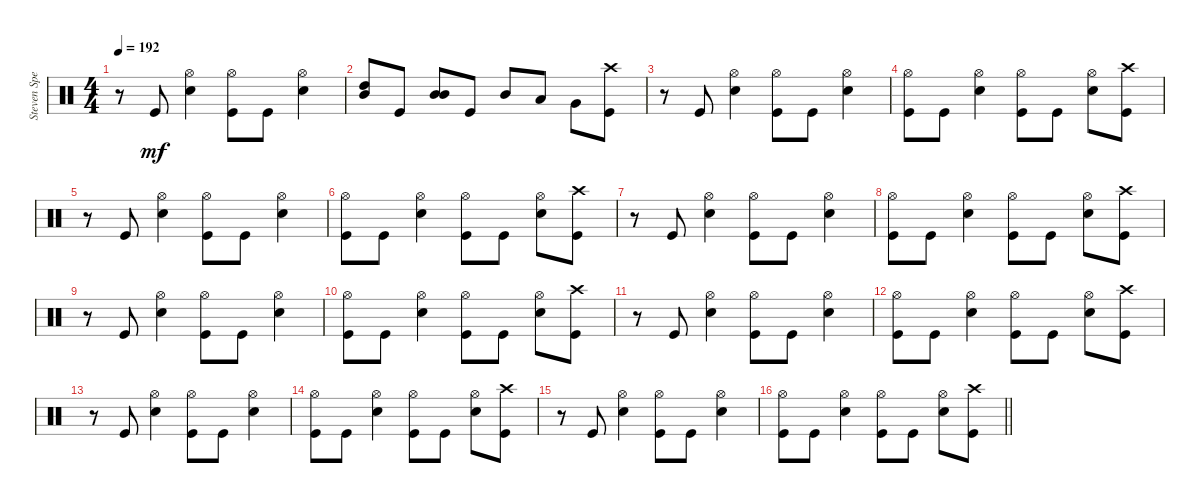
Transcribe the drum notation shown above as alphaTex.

\track ("Steven Spence" "Steven Spe") {instrument percussion}
\staff {score}
\articulation defaults
\ts (4 4)
\tempo 192
\clef neutral
\ks c
r.8{dy mf} "Kick (hit)".8 ("Hi-Hat (open)" "Electric Snare (hit)").4 ("Hi-Hat (open)" "Kick (hit)").8 "Kick (hit)".8 ("Hi-Hat (open)" "Electric Snare (hit)").4 |
("Mid Tom (hit)" "High Tom (hit)").8 "Kick (hit)".8 ("Mid Tom (hit)" "Mid Tom (hit)").8 "Kick (hit)".8 "Mid Tom (hit)".8 "Low Tom (hit)".8 "Very Low Tom (hit)".8 ("Crash high (hit)" "Kick (hit)").8 |
r.8 "Kick (hit)".8 ("Hi-Hat (open)" "Electric Snare (hit)").4 ("Hi-Hat (open)" "Kick (hit)").8 "Kick (hit)".8 ("Hi-Hat (open)" "Electric Snare (hit)").4 |
("Hi-Hat (open)" "Kick (hit)").8 "Kick (hit)".8 ("Hi-Hat (open)" "Electric Snare (hit)").4 ("Hi-Hat (open)" "Kick (hit)").8 "Kick (hit)".8 ("Hi-Hat (open)" "Electric Snare (hit)").8 ("Crash high (hit)" "Kick (hit)").8 |
r.8 "Kick (hit)".8 ("Hi-Hat (open)" "Electric Snare (hit)").4 ("Hi-Hat (open)" "Kick (hit)").8 "Kick (hit)".8 ("Hi-Hat (open)" "Electric Snare (hit)").4 |
("Hi-Hat (open)" "Kick (hit)").8 "Kick (hit)".8 ("Hi-Hat (open)" "Electric Snare (hit)").4 ("Hi-Hat (open)" "Kick (hit)").8 "Kick (hit)".8 ("Hi-Hat (open)" "Electric Snare (hit)").8 ("Crash high (hit)" "Kick (hit)").8 |
r.8 "Kick (hit)".8 ("Hi-Hat (open)" "Electric Snare (hit)").4 ("Hi-Hat (open)" "Kick (hit)").8 "Kick (hit)".8 ("Hi-Hat (open)" "Electric Snare (hit)").4 |
("Hi-Hat (open)" "Kick (hit)").8 "Kick (hit)".8 ("Hi-Hat (open)" "Electric Snare (hit)").4 ("Hi-Hat (open)" "Kick (hit)").8 "Kick (hit)".8 ("Hi-Hat (open)" "Electric Snare (hit)").8 ("Crash high (hit)" "Kick (hit)").8 |
r.8 "Kick (hit)".8 ("Hi-Hat (open)" "Electric Snare (hit)").4 ("Hi-Hat (open)" "Kick (hit)").8 "Kick (hit)".8 ("Hi-Hat (open)" "Electric Snare (hit)").4 |
("Hi-Hat (open)" "Kick (hit)").8 "Kick (hit)".8 ("Hi-Hat (open)" "Electric Snare (hit)").4 ("Hi-Hat (open)" "Kick (hit)").8 "Kick (hit)".8 ("Hi-Hat (open)" "Electric Snare (hit)").8 ("Crash high (hit)" "Kick (hit)").8 |
r.8 "Kick (hit)".8 ("Hi-Hat (open)" "Electric Snare (hit)").4 ("Hi-Hat (open)" "Kick (hit)").8 "Kick (hit)".8 ("Hi-Hat (open)" "Electric Snare (hit)").4 |
("Hi-Hat (open)" "Kick (hit)").8 "Kick (hit)".8 ("Hi-Hat (open)" "Electric Snare (hit)").4 ("Hi-Hat (open)" "Kick (hit)").8 "Kick (hit)".8 ("Hi-Hat (open)" "Electric Snare (hit)").8 ("Crash high (hit)" "Kick (hit)").8 |
r.8 "Kick (hit)".8 ("Hi-Hat (open)" "Electric Snare (hit)").4 ("Hi-Hat (open)" "Kick (hit)").8 "Kick (hit)".8 ("Hi-Hat (open)" "Electric Snare (hit)").4 |
("Hi-Hat (open)" "Kick (hit)").8 "Kick (hit)".8 ("Hi-Hat (open)" "Electric Snare (hit)").4 ("Hi-Hat (open)" "Kick (hit)").8 "Kick (hit)".8 ("Hi-Hat (open)" "Electric Snare (hit)").8 ("Crash high (hit)" "Kick (hit)").8 |
r.8 "Kick (hit)".8 ("Hi-Hat (open)" "Electric Snare (hit)").4 ("Hi-Hat (open)" "Kick (hit)").8 "Kick (hit)".8 ("Hi-Hat (open)" "Electric Snare (hit)").4 |
\barLineRight lightlight
("Hi-Hat (open)" "Kick (hit)").8 "Kick (hit)".8 ("Hi-Hat (open)" "Electric Snare (hit)").4 ("Hi-Hat (open)" "Kick (hit)").8 "Kick (hit)".8 ("Hi-Hat (open)" "Electric Snare (hit)").8 ("Crash high (hit)" "Kick (hit)").8
